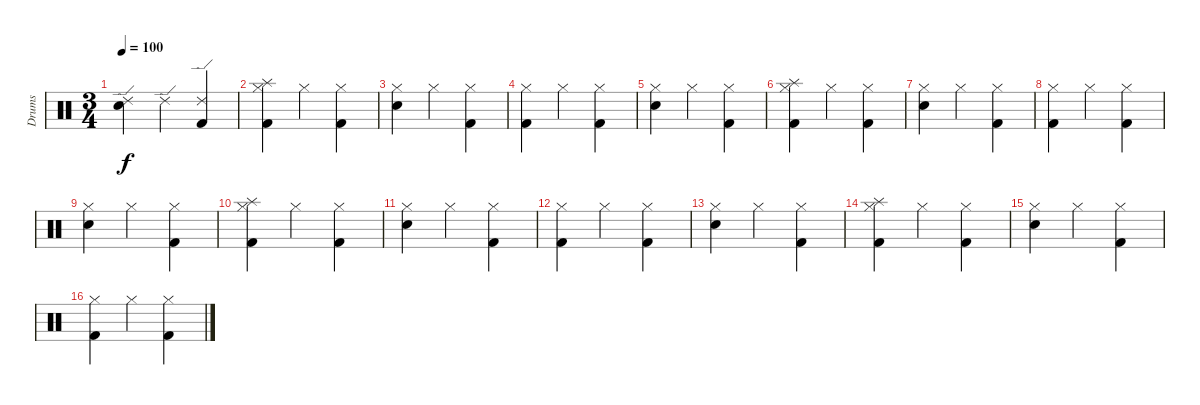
\track ("Drums" "Drums") {instrument percussion}
\staff {score}
\articulation defaults
\ts (3 4)
\tempo 100
\clef neutral
\ks c
("Ride (edge) 2" "Electric Snare (hit)").4{dy f} "Ride (edge) 2".4 ("Ride (edge) 2" "Kick (hit) 2").4 |
("Hi-Hat (closed)" "Splash (hit)" "Kick (hit) 2").4 "Hi-Hat (closed)".4 ("Hi-Hat (closed)" "Kick (hit) 2").4 |
("Hi-Hat (closed)" "Electric Snare (hit)").4 "Hi-Hat (closed)".4 ("Hi-Hat (closed)" "Kick (hit) 2").4 |
("Hi-Hat (closed)" "Kick (hit) 2").4 "Hi-Hat (closed)".4 ("Hi-Hat (closed)" "Kick (hit) 2").4 |
("Hi-Hat (closed)" "Electric Snare (hit)").4 "Hi-Hat (closed)".4 ("Hi-Hat (closed)" "Kick (hit) 2").4 |
("Hi-Hat (closed)" "Splash (hit)" "Kick (hit) 2").4 "Hi-Hat (closed)".4 ("Hi-Hat (closed)" "Kick (hit) 2").4 |
("Hi-Hat (closed)" "Electric Snare (hit)").4 "Hi-Hat (closed)".4 ("Hi-Hat (closed)" "Kick (hit) 2").4 |
("Hi-Hat (closed)" "Kick (hit) 2").4 "Hi-Hat (closed)".4 ("Hi-Hat (closed)" "Kick (hit) 2").4 |
("Hi-Hat (closed)" "Electric Snare (hit)").4 "Hi-Hat (closed)".4 ("Hi-Hat (closed)" "Kick (hit) 2").4 |
("Hi-Hat (closed)" "Splash (hit)" "Kick (hit) 2").4 "Hi-Hat (closed)".4 ("Hi-Hat (closed)" "Kick (hit) 2").4 |
("Hi-Hat (closed)" "Electric Snare (hit)").4 "Hi-Hat (closed)".4 ("Hi-Hat (closed)" "Kick (hit) 2").4 |
("Hi-Hat (closed)" "Kick (hit) 2").4 "Hi-Hat (closed)".4 ("Hi-Hat (closed)" "Kick (hit) 2").4 |
("Hi-Hat (closed)" "Electric Snare (hit)").4 "Hi-Hat (closed)".4 ("Hi-Hat (closed)" "Kick (hit) 2").4 |
("Hi-Hat (closed)" "Splash (hit)" "Kick (hit) 2").4 "Hi-Hat (closed)".4 ("Hi-Hat (closed)" "Kick (hit) 2").4 |
("Hi-Hat (closed)" "Electric Snare (hit)").4 "Hi-Hat (closed)".4 ("Hi-Hat (closed)" "Kick (hit) 2").4 |
("Hi-Hat (closed)" "Kick (hit) 2").4 "Hi-Hat (closed)".4 ("Hi-Hat (closed)" "Kick (hit) 2").4
